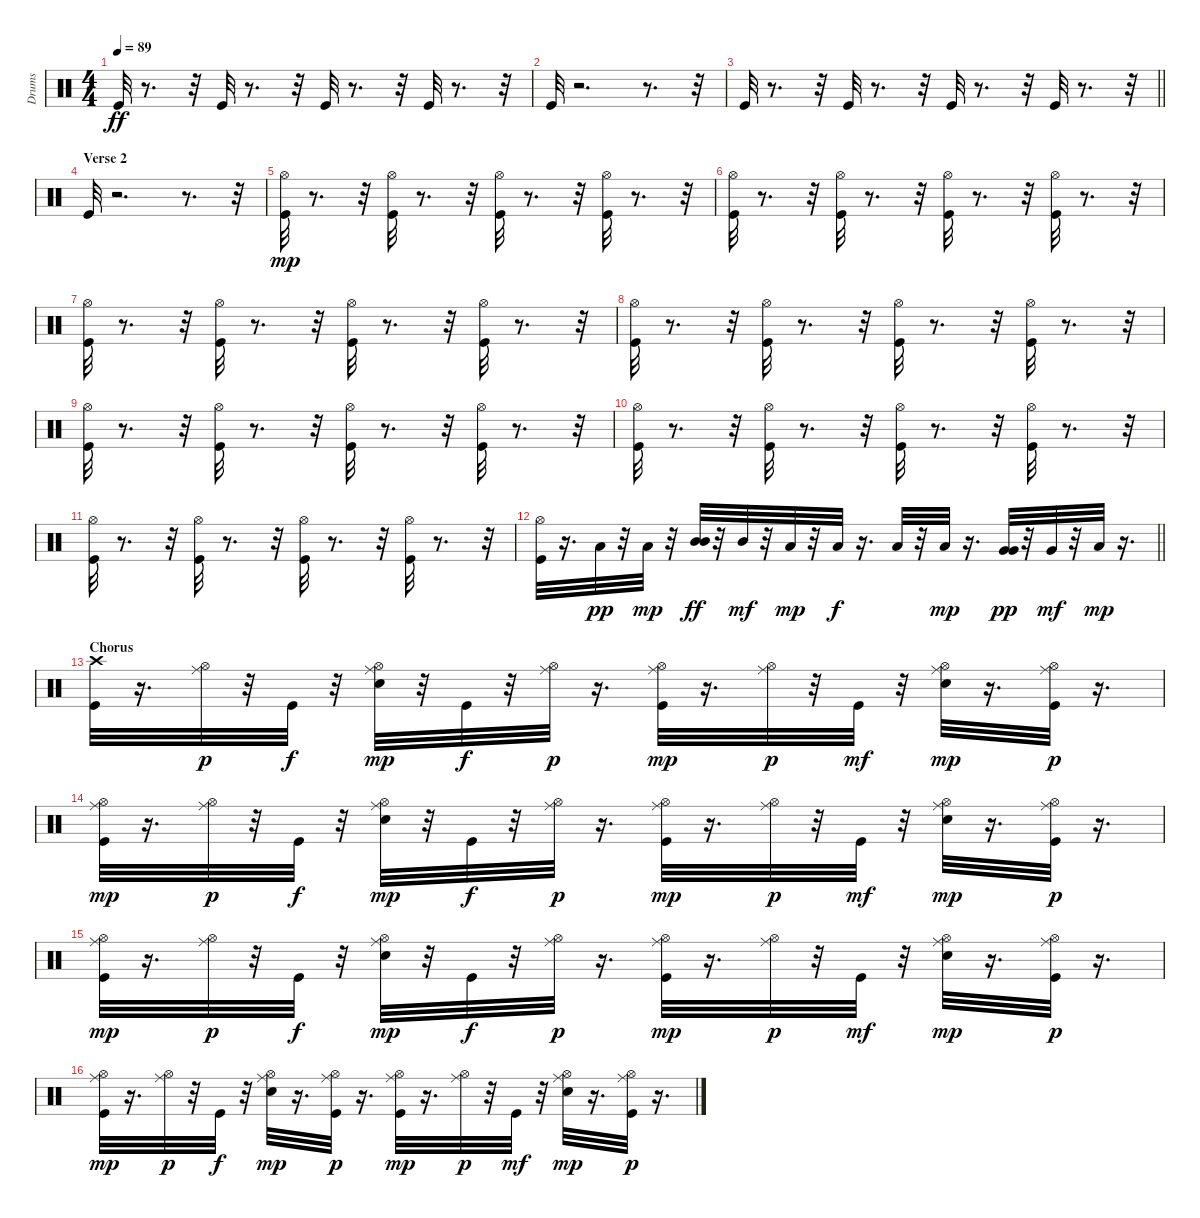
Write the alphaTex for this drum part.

\track ("Drums   " "Drums   ") {instrument percussion}
\staff {score}
\articulation defaults
\ts (4 4)
\tempo 89
\clef neutral
\ks c "Kick (hit)".32{dy ff}
r.8{d} r.32 "Kick (hit)".32 r.8{d} r.32 "Kick (hit)".32 r.8{d} r.32 "Kick (hit)".32 r.8{d} r.32 |
"Kick (hit)".32 r.2{d} r.8{d} r.32 |
\barLineRight lightlight "Kick (hit)".32
r.8{d} r.32 "Kick (hit)".32 r.8{d} r.32 "Kick (hit)".32 r.8{d} r.32 "Kick (hit)".32 r.8{d} r.32 |
\section ("" "Verse 2")
"Kick (hit)".32 r.2{d} r.8{d} r.32 |
("Kick (hit)" "Hi-Hat (open)").32{dy mp} r.8{d} r.32 ("Kick (hit)" "Hi-Hat (open)").32 r.8{d} r.32 ("Kick (hit)" "Hi-Hat (open)").32 r.8{d} r.32 ("Kick (hit)" "Hi-Hat (open)").32 r.8{d} r.32 |
("Kick (hit)" "Hi-Hat (open)").32 r.8{d} r.32 ("Kick (hit)" "Hi-Hat (open)").32 r.8{d} r.32 ("Kick (hit)" "Hi-Hat (open)").32 r.8{d} r.32 ("Kick (hit)" "Hi-Hat (open)").32 r.8{d} r.32 |
("Kick (hit)" "Hi-Hat (open)").32 r.8{d} r.32 ("Kick (hit)" "Hi-Hat (open)").32 r.8{d} r.32 ("Kick (hit)" "Hi-Hat (open)").32 r.8{d} r.32 ("Kick (hit)" "Hi-Hat (open)").32 r.8{d} r.32 |
("Kick (hit)" "Hi-Hat (open)").32 r.8{d} r.32 ("Kick (hit)" "Hi-Hat (open)").32 r.8{d} r.32 ("Kick (hit)" "Hi-Hat (open)").32 r.8{d} r.32 ("Kick (hit)" "Hi-Hat (open)").32 r.8{d} r.32 |
("Kick (hit)" "Hi-Hat (open)").32 r.8{d} r.32 ("Kick (hit)" "Hi-Hat (open)").32 r.8{d} r.32 ("Kick (hit)" "Hi-Hat (open)").32 r.8{d} r.32 ("Kick (hit)" "Hi-Hat (open)").32 r.8{d} r.32 |
("Kick (hit)" "Hi-Hat (open)").32 r.8{d} r.32 ("Kick (hit)" "Hi-Hat (open)").32 r.8{d} r.32 ("Kick (hit)" "Hi-Hat (open)").32 r.8{d} r.32 ("Kick (hit)" "Hi-Hat (open)").32 r.8{d} r.32 |
("Kick (hit)" "Hi-Hat (open)").32 r.8{d} r.32 ("Kick (hit)" "Hi-Hat (open)").32 r.8{d} r.32 ("Kick (hit)" "Hi-Hat (open)").32 r.8{d} r.32 ("Kick (hit)" "Hi-Hat (open)").32 r.8{d} r.32 |
\barLineRight lightlight
("Kick (hit)" "Hi-Hat (open)").32 r.16{d} "Low Tom (hit)".32{dy pp} r.32 "Low Tom (hit)".32{dy mp} r.32 ("Mid Tom (hit)" "Mid Tom (hit)").32{dy ff} r.32 "Mid Tom (hit)".32{dy mf} r.32 "Low Tom (hit)".32{dy mp} r.32 "Low Tom (hit)".32{dy f} r.16{d} "Low Tom (hit)".32 r.32 "Low Tom (hit)".32{dy mp} r.16{d} ("Very Low Tom (hit)" "Very Low Tom (hit)").32{dy pp} r.32 "Very Low Tom (hit)".32{dy mf} r.32 "Low Floor Tom (hit)".32{dy mp} r.16{d} |
\section ("" "Chorus")
("Kick (hit)" "Crash high (hit)").32 r.16{d} ("Hi-Hat (open)" "Ride (middle)").32{dy p} r.32 "Kick (hit)".32{dy f} r.32 ("Electric Snare (hit)" "Hi-Hat (open)" "Ride (middle)").32{dy mp} r.32 "Kick (hit)".32{dy f} r.32 ("Hi-Hat (open)" "Ride (middle)").32{dy p} r.16{d} ("Kick (hit)" "Hi-Hat (open)" "Ride (middle)").32{dy mp} r.16{d} ("Hi-Hat (open)" "Ride (middle)").32{dy p} r.32 "Kick (hit)".32{dy mf} r.32 ("Electric Snare (hit)" "Hi-Hat (open)" "Ride (middle)").32{dy mp} r.16{d} ("Kick (hit)" "Hi-Hat (open)" "Ride (middle)").32{dy p} r.16{d} |
("Kick (hit)" "Hi-Hat (open)" "Ride (middle)").32{dy mp} r.16{d} ("Hi-Hat (open)" "Ride (middle)").32{dy p} r.32 "Kick (hit)".32{dy f} r.32 ("Electric Snare (hit)" "Hi-Hat (open)" "Ride (middle)").32{dy mp} r.32 "Kick (hit)".32{dy f} r.32 ("Hi-Hat (open)" "Ride (middle)").32{dy p} r.16{d} ("Kick (hit)" "Hi-Hat (open)" "Ride (middle)").32{dy mp} r.16{d} ("Hi-Hat (open)" "Ride (middle)").32{dy p} r.32 "Kick (hit)".32{dy mf} r.32 ("Electric Snare (hit)" "Hi-Hat (open)" "Ride (middle)").32{dy mp} r.16{d} ("Kick (hit)" "Hi-Hat (open)" "Ride (middle)").32{dy p} r.16{d} |
("Kick (hit)" "Hi-Hat (open)" "Ride (middle)").32{dy mp} r.16{d} ("Hi-Hat (open)" "Ride (middle)").32{dy p} r.32 "Kick (hit)".32{dy f} r.32 ("Electric Snare (hit)" "Hi-Hat (open)" "Ride (middle)").32{dy mp} r.32 "Kick (hit)".32{dy f} r.32 ("Hi-Hat (open)" "Ride (middle)").32{dy p} r.16{d} ("Kick (hit)" "Hi-Hat (open)" "Ride (middle)").32{dy mp} r.16{d} ("Hi-Hat (open)" "Ride (middle)").32{dy p} r.32 "Kick (hit)".32{dy mf} r.32 ("Electric Snare (hit)" "Hi-Hat (open)" "Ride (middle)").32{dy mp} r.16{d} ("Kick (hit)" "Hi-Hat (open)" "Ride (middle)").32{dy p} r.16{d} |
("Kick (hit)" "Hi-Hat (open)" "Ride (middle)").32{dy mp} r.16{d} ("Hi-Hat (open)" "Ride (middle)").32{dy p} r.32 "Kick (hit)".32{dy f} r.32 ("Electric Snare (hit)" "Hi-Hat (open)" "Ride (middle)").32{dy mp} r.16{d} ("Kick (hit)" "Hi-Hat (open)" "Ride (middle)").32{dy p} r.16{d} ("Kick (hit)" "Hi-Hat (open)" "Ride (middle)").32{dy mp} r.16{d} ("Hi-Hat (open)" "Ride (middle)").32{dy p} r.32 "Kick (hit)".32{dy mf} r.32 ("Electric Snare (hit)" "Hi-Hat (open)" "Ride (middle)").32{dy mp} r.16{d} ("Kick (hit)" "Hi-Hat (open)" "Ride (middle)").32{dy p} r.16{d}
